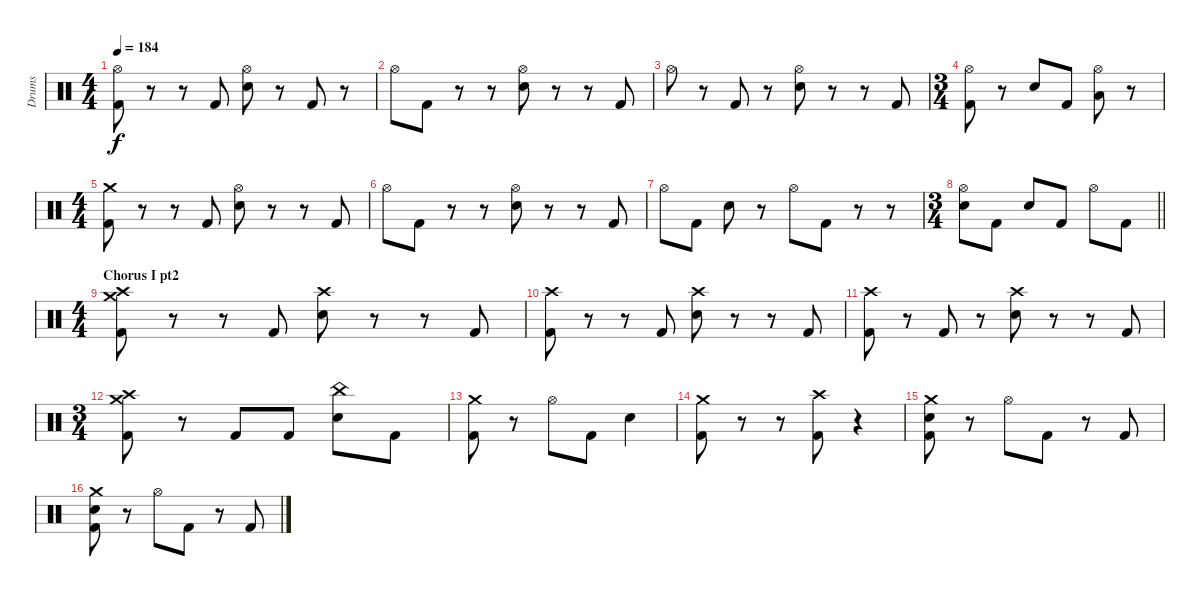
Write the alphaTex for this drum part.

\track ("Drums" "Drums") {instrument percussion}
\staff {score}
\articulation defaults
\ts (4 4)
\tempo 184
\clef neutral
\ks c
("Hi-Hat (open)" "Kick (hit) 2").8{dy f} r.8 r.8 "Kick (hit) 2".8 ("Hi-Hat (open)" "Snare (hit) 2").8 r.8 "Kick (hit) 2".8 r.8 |
"Hi-Hat (open)".8 "Kick (hit) 2".8 r.8 r.8 ("Hi-Hat (open)" "Snare (hit) 2").8 r.8 r.8 "Kick (hit) 2".8 |
"Hi-Hat (open)".8 r.8 "Kick (hit) 2".8 r.8 ("Hi-Hat (open)" "Snare (hit) 2").8 r.8 r.8 "Kick (hit) 2".8 |
\ts (3 4)
("Hi-Hat (open)" "Kick (hit) 2").8 r.8 "Snare (hit) 2".8 "Kick (hit) 2".8 ("Hi-Hat (open)" "Low Floor Tom (hit)").8 r.8 |
\ts (4 4)
("Crash medium (hit)" "Kick (hit) 2").8 r.8 r.8 "Kick (hit) 2".8 ("Hi-Hat (open)" "Snare (hit) 2").8 r.8 r.8 "Kick (hit) 2".8 |
"Hi-Hat (open)".8 "Kick (hit) 2".8 r.8 r.8 ("Hi-Hat (open)" "Snare (hit) 2").8 r.8 r.8 "Kick (hit) 2".8 |
"Hi-Hat (open)".8 "Kick (hit) 2".8 "Snare (hit) 2".8 r.8 "Hi-Hat (open)".8 "Kick (hit) 2".8 r.8 r.8 |
\ts (3 4)
\barLineRight lightlight
("Hi-Hat (open)" "Snare (hit) 2").8 "Kick (hit) 2".8 "Snare (hit) 2".8 "Kick (hit) 2".8 "Hi-Hat (open)".8 "Kick (hit) 2".8 |
\ts (4 4)
\section ("" "Chorus I pt2")
("Crash medium (hit)" "Crash high (hit)" "Kick (hit) 2").8 r.8 r.8 "Kick (hit) 2".8 ("Crash high (hit)" "Snare (hit) 2").8 r.8 r.8 "Kick (hit) 2".8 |
("Crash high (hit)" "Kick (hit) 2").8 r.8 r.8 "Kick (hit) 2".8 ("Crash high (hit)" "Snare (hit) 2").8 r.8 r.8 "Kick (hit) 2".8 |
("Crash high (hit)" "Kick (hit) 2").8 r.8 "Kick (hit) 2".8 r.8 ("Crash high (hit)" "Snare (hit) 2").8 r.8 r.8 "Kick (hit) 2".8 |
\ts (3 4)
("Crash medium (hit)" "Crash high (hit)" "Kick (hit) 2").8 r.8 "Kick (hit) 2".8 "Kick (hit) 2".8 ("China (hit)" "Snare (hit) 2").8 "Kick (hit) 2".8 |
("Crash medium (hit)" "Kick (hit) 2").8 r.8 "Hi-Hat (open)".8 "Kick (hit) 2".8 "Snare (hit) 2".4 |
("Crash medium (hit)" "Kick (hit) 2").8 r.8 r.8 ("Crash high (hit)" "Kick (hit) 2").8 r.4 |
("Crash medium (hit)" "Snare (hit) 2" "Kick (hit) 2").8 r.8 "Hi-Hat (open)".8 "Kick (hit) 2".8 r.8 "Kick (hit) 2".8 |
("Crash medium (hit)" "Snare (hit) 2" "Kick (hit) 2").8 r.8 "Hi-Hat (open)".8 "Kick (hit) 2".8 r.8 "Kick (hit) 2".8
